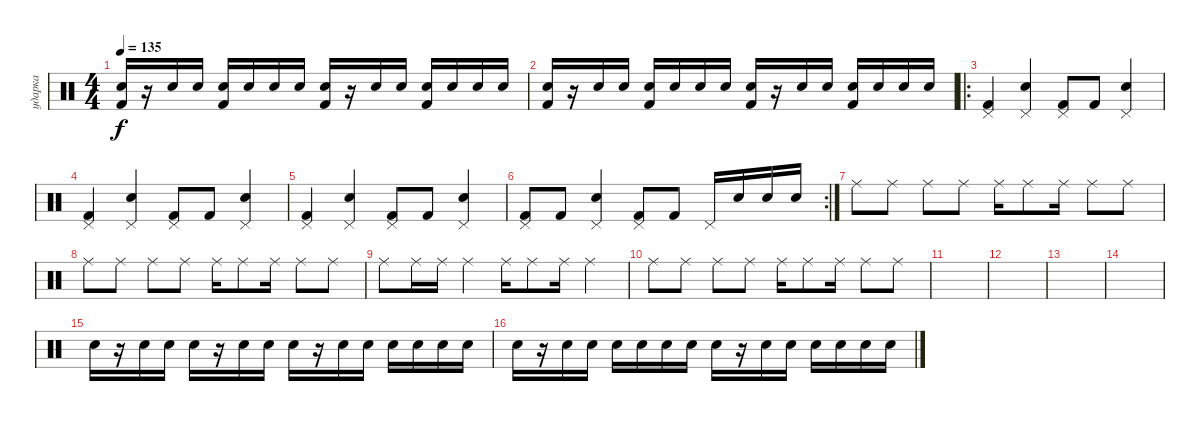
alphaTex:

\track ("ударка" "ударка") {instrument percussion}
\staff {score}
\articulation defaults
\ts (4 4)
\tempo 135
\clef neutral
\ks c
("Snare (hit) 2" "Kick (hit) 2").16{dy f} r.16 "Snare (hit) 2".16 "Snare (hit) 2".16 ("Snare (hit) 2" "Kick (hit) 2").16 "Snare (hit) 2".16 "Snare (hit) 2".16 "Snare (hit) 2".16 ("Snare (hit) 2" "Kick (hit) 2").16 r.16 "Snare (hit) 2".16 "Snare (hit) 2".16 ("Snare (hit) 2" "Kick (hit) 2").16 "Snare (hit) 2".16 "Snare (hit) 2".16 "Snare (hit) 2".16 |
("Snare (hit) 2" "Kick (hit) 2").16 r.16 "Snare (hit) 2".16 "Snare (hit) 2".16 ("Snare (hit) 2" "Kick (hit) 2").16 "Snare (hit) 2".16 "Snare (hit) 2".16 "Snare (hit) 2".16 ("Snare (hit) 2" "Kick (hit) 2").16 r.16 "Snare (hit) 2".16 "Snare (hit) 2".16 ("Snare (hit) 2" "Kick (hit) 2").16 "Snare (hit) 2".16 "Snare (hit) 2".16 "Snare (hit) 2".16 |
\ro
("Pedal Hi-Hat (hit)" "Kick (hit) 2").4 ("Pedal Hi-Hat (hit)" "Snare (hit) 2").4 ("Pedal Hi-Hat (hit)" "Kick (hit) 2").8 "Kick (hit) 2".8 ("Pedal Hi-Hat (hit)" "Snare (hit) 2").4 |
("Pedal Hi-Hat (hit)" "Kick (hit) 2").4 ("Pedal Hi-Hat (hit)" "Snare (hit) 2").4 ("Pedal Hi-Hat (hit)" "Kick (hit) 2").8 "Kick (hit) 2".8 ("Pedal Hi-Hat (hit)" "Snare (hit) 2").4 |
("Pedal Hi-Hat (hit)" "Kick (hit) 2").4 ("Pedal Hi-Hat (hit)" "Snare (hit) 2").4 ("Pedal Hi-Hat (hit)" "Kick (hit) 2").8 "Kick (hit) 2".8 ("Pedal Hi-Hat (hit)" "Snare (hit) 2").4 |
\rc 2
("Pedal Hi-Hat (hit)" "Kick (hit) 2").8 "Kick (hit) 2".8 ("Pedal Hi-Hat (hit)" "Snare (hit) 2").4 ("Pedal Hi-Hat (hit)" "Kick (hit) 2").8 "Kick (hit) 2".8 "Pedal Hi-Hat (hit)".16 "Snare (hit) 2".16 "Snare (hit) 2".16 "Snare (hit) 2".16 |
"Ride (middle)".8 "Ride (middle)".8 "Ride (middle)".8 "Ride (middle)".8 "Ride (middle)".16 "Ride (middle)".8 "Ride (middle)".16 "Ride (middle)".8 "Ride (middle)".8 |
"Ride (middle)".8 "Ride (middle)".8 "Ride (middle)".8 "Ride (middle)".8 "Ride (middle)".16 "Ride (middle)".8 "Ride (middle)".16 "Ride (middle)".8 "Ride (middle)".8 |
"Ride (middle)".8 "Ride (middle)".16 "Ride (middle)".16 "Ride (middle)".4 "Ride (middle)".16 "Ride (middle)".8 "Ride (middle)".16 "Ride (middle)".4 |
"Ride (middle)".8 "Ride (middle)".8 "Ride (middle)".8 "Ride (middle)".8 "Ride (middle)".16 "Ride (middle)".8 "Ride (middle)".16 "Ride (middle)".8 "Ride (middle)".8 |
|
|
|
|
"Snare (hit) 2".16 r.16 "Snare (hit) 2".16 "Snare (hit) 2".16 "Snare (hit) 2".16 r.16 "Snare (hit) 2".16 "Snare (hit) 2".16 "Snare (hit) 2".16 r.16 "Snare (hit) 2".16 "Snare (hit) 2".16 "Snare (hit) 2".16 "Snare (hit) 2".16 "Snare (hit) 2".16 "Snare (hit) 2".16 |
"Snare (hit) 2".16 r.16 "Snare (hit) 2".16 "Snare (hit) 2".16 "Snare (hit) 2".16 "Snare (hit) 2".16 "Snare (hit) 2".16 "Snare (hit) 2".16 "Snare (hit) 2".16 r.16 "Snare (hit) 2".16 "Snare (hit) 2".16 "Snare (hit) 2".16 "Snare (hit) 2".16 "Snare (hit) 2".16 "Snare (hit) 2".16
